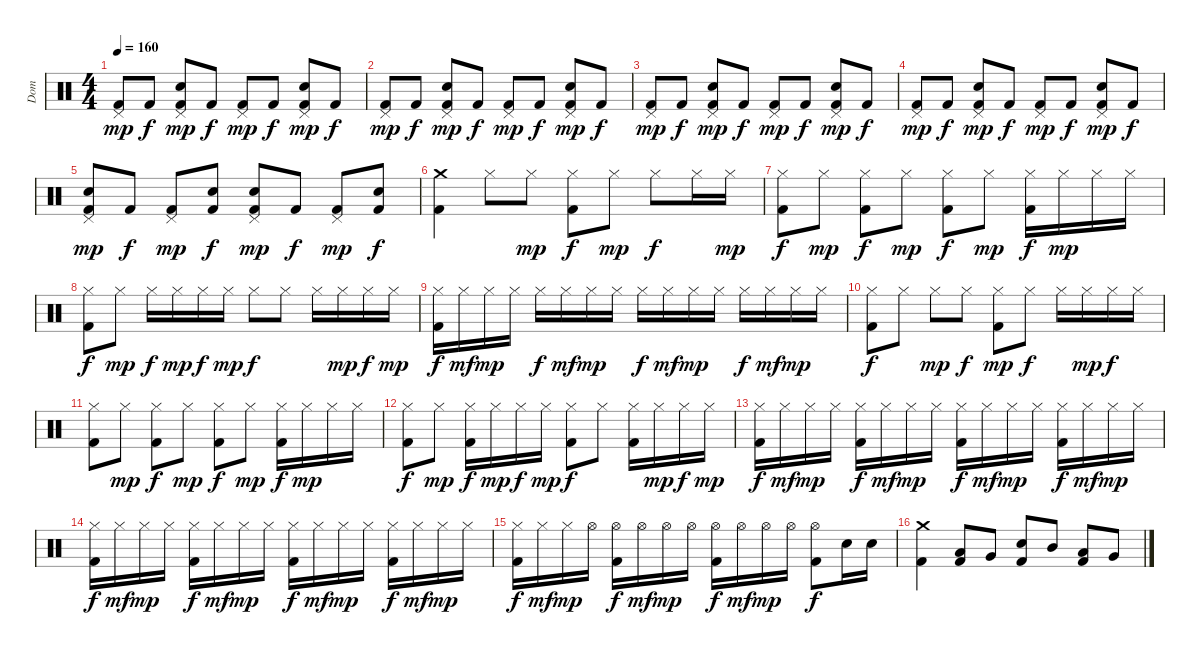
\track ("Dom" "Dom") {instrument percussion}
\staff {score}
\articulation defaults
\ts (4 4)
\tempo 160
\clef neutral
\ks c
("Pedal Hi-Hat (hit)" "Kick (hit) 2").8{dy mp} "Kick (hit) 2".8{dy f} ("Pedal Hi-Hat (hit)" "Snare (hit) 2" "Kick (hit) 2").8{dy mp} "Kick (hit) 2".8{dy f} ("Pedal Hi-Hat (hit)" "Kick (hit) 2").8{dy mp} "Kick (hit) 2".8{dy f} ("Pedal Hi-Hat (hit)" "Snare (hit) 2" "Kick (hit) 2").8{dy mp} "Kick (hit) 2".8{dy f} |
("Pedal Hi-Hat (hit)" "Kick (hit) 2").8{dy mp} "Kick (hit) 2".8{dy f} ("Pedal Hi-Hat (hit)" "Snare (hit) 2" "Kick (hit) 2").8{dy mp} "Kick (hit) 2".8{dy f} ("Pedal Hi-Hat (hit)" "Kick (hit) 2").8{dy mp} "Kick (hit) 2".8{dy f} ("Pedal Hi-Hat (hit)" "Snare (hit) 2" "Kick (hit) 2").8{dy mp} "Kick (hit) 2".8{dy f} |
("Pedal Hi-Hat (hit)" "Kick (hit) 2").8{dy mp} "Kick (hit) 2".8{dy f} ("Pedal Hi-Hat (hit)" "Snare (hit) 2" "Kick (hit) 2").8{dy mp} "Kick (hit) 2".8{dy f} ("Pedal Hi-Hat (hit)" "Kick (hit) 2").8{dy mp} "Kick (hit) 2".8{dy f} ("Pedal Hi-Hat (hit)" "Snare (hit) 2" "Kick (hit) 2").8{dy mp} "Kick (hit) 2".8{dy f} |
("Pedal Hi-Hat (hit)" "Kick (hit) 2").8{dy mp} "Kick (hit) 2".8{dy f} ("Pedal Hi-Hat (hit)" "Snare (hit) 2" "Kick (hit) 2").8{dy mp} "Kick (hit) 2".8{dy f} ("Pedal Hi-Hat (hit)" "Kick (hit) 2").8{dy mp} "Kick (hit) 2".8{dy f} ("Pedal Hi-Hat (hit)" "Snare (hit) 2" "Kick (hit) 2").8{dy mp} "Kick (hit) 2".8{dy f} |
("Pedal Hi-Hat (hit)" "Snare (hit) 2" "Kick (hit) 2").8{dy mp} "Kick (hit) 2".8{dy f} ("Pedal Hi-Hat (hit)" "Kick (hit) 2").8{dy mp} ("Snare (hit) 2" "Kick (hit) 2").8{dy f} ("Pedal Hi-Hat (hit)" "Snare (hit) 2" "Kick (hit) 2").8{dy mp} "Kick (hit) 2".8{dy f} ("Pedal Hi-Hat (hit)" "Kick (hit) 2").8{dy mp} ("Snare (hit) 2" "Kick (hit) 2").8{dy f} |
("Crash medium (hit)" "Kick (hit) 2").4 "Hi-Hat (closed)".8 "Hi-Hat (closed)".8{dy mp} ("Hi-Hat (closed)" "Kick (hit) 2").8{dy f} "Hi-Hat (closed)".8{dy mp} "Hi-Hat (closed)".8{dy f} "Hi-Hat (closed)".16 "Hi-Hat (closed)".16{dy mp} |
("Hi-Hat (closed)" "Kick (hit) 2").8{dy f} "Hi-Hat (closed)".8{dy mp} ("Hi-Hat (closed)" "Kick (hit) 2").8{dy f} "Hi-Hat (closed)".8{dy mp} ("Hi-Hat (closed)" "Kick (hit) 2").8{dy f} "Hi-Hat (closed)".8{dy mp} ("Hi-Hat (closed)" "Kick (hit) 2").16{dy f} "Hi-Hat (closed)".16{dy mp} "Hi-Hat (closed)".16 "Hi-Hat (closed)".16 |
("Hi-Hat (closed)" "Kick (hit) 2").8{dy f} "Hi-Hat (closed)".8{dy mp} "Hi-Hat (closed)".16{dy f} "Hi-Hat (closed)".16{dy mp} "Hi-Hat (closed)".16{dy f} "Hi-Hat (closed)".16{dy mp} "Hi-Hat (closed)".8{dy f} "Hi-Hat (closed)".8 "Hi-Hat (closed)".16 "Hi-Hat (closed)".16{dy mp} "Hi-Hat (closed)".16{dy f} "Hi-Hat (closed)".16{dy mp} |
("Hi-Hat (closed)" "Kick (hit) 2").16{dy f} "Hi-Hat (closed)".16{dy mf} "Hi-Hat (closed)".16{dy mp} "Hi-Hat (closed)".16 "Hi-Hat (closed)".16{dy f} "Hi-Hat (closed)".16{dy mf} "Hi-Hat (closed)".16{dy mp} "Hi-Hat (closed)".16 "Hi-Hat (closed)".16{dy f} "Hi-Hat (closed)".16{dy mf} "Hi-Hat (closed)".16{dy mp} "Hi-Hat (closed)".16 "Hi-Hat (closed)".16{dy f} "Hi-Hat (closed)".16{dy mf} "Hi-Hat (closed)".16{dy mp} "Hi-Hat (closed)".16 |
("Hi-Hat (closed)" "Kick (hit) 2").8{dy f} "Hi-Hat (closed)".8 "Hi-Hat (closed)".8{dy mp} "Hi-Hat (closed)".8{dy f} ("Hi-Hat (closed)" "Kick (hit) 2").8{dy mp} "Hi-Hat (closed)".8{dy f} "Hi-Hat (closed)".16 "Hi-Hat (closed)".16{dy mp} "Hi-Hat (closed)".16{dy f} "Hi-Hat (closed)".16 |
("Hi-Hat (closed)" "Kick (hit) 2").8 "Hi-Hat (closed)".8{dy mp} ("Hi-Hat (closed)" "Kick (hit) 2").8{dy f} "Hi-Hat (closed)".8{dy mp} ("Hi-Hat (closed)" "Kick (hit) 2").8{dy f} "Hi-Hat (closed)".8{dy mp} ("Hi-Hat (closed)" "Kick (hit) 2").16{dy f} "Hi-Hat (closed)".16{dy mp} "Hi-Hat (closed)".16 "Hi-Hat (closed)".16 |
("Hi-Hat (closed)" "Kick (hit) 2").8{dy f} "Hi-Hat (closed)".8{dy mp} ("Hi-Hat (closed)" "Kick (hit) 2").16{dy f} "Hi-Hat (closed)".16{dy mp} "Hi-Hat (closed)".16{dy f} "Hi-Hat (closed)".16{dy mp} ("Hi-Hat (closed)" "Kick (hit) 2").8{dy f} "Hi-Hat (closed)".8 ("Hi-Hat (closed)" "Kick (hit) 2").16 "Hi-Hat (closed)".16{dy mp} "Hi-Hat (closed)".16{dy f} "Hi-Hat (closed)".16{dy mp} |
("Hi-Hat (closed)" "Kick (hit) 2").16{dy f} "Hi-Hat (closed)".16{dy mf} "Hi-Hat (closed)".16{dy mp} "Hi-Hat (closed)".16 ("Hi-Hat (closed)" "Kick (hit) 2").16{dy f} "Hi-Hat (closed)".16{dy mf} "Hi-Hat (closed)".16{dy mp} "Hi-Hat (closed)".16 ("Hi-Hat (closed)" "Kick (hit) 2").16{dy f} "Hi-Hat (closed)".16{dy mf} "Hi-Hat (closed)".16{dy mp} "Hi-Hat (closed)".16 ("Hi-Hat (closed)" "Kick (hit) 2").16{dy f} "Hi-Hat (closed)".16{dy mf} "Hi-Hat (closed)".16{dy mp} "Hi-Hat (closed)".16 |
("Hi-Hat (closed)" "Kick (hit) 2").16{dy f} "Hi-Hat (closed)".16{dy mf} "Hi-Hat (closed)".16{dy mp} "Hi-Hat (closed)".16 ("Hi-Hat (closed)" "Kick (hit) 2").16{dy f} "Hi-Hat (closed)".16{dy mf} "Hi-Hat (closed)".16{dy mp} "Hi-Hat (closed)".16 ("Hi-Hat (closed)" "Kick (hit) 2").16{dy f} "Hi-Hat (closed)".16{dy mf} "Hi-Hat (closed)".16{dy mp} "Hi-Hat (closed)".16 ("Hi-Hat (closed)" "Kick (hit) 2").16{dy f} "Hi-Hat (closed)".16{dy mf} "Hi-Hat (closed)".16{dy mp} "Hi-Hat (closed)".16 |
("Hi-Hat (closed)" "Kick (hit) 2").16{dy f} "Hi-Hat (closed)".16{dy mf} "Hi-Hat (closed)".16{dy mp} "Hi-Hat (open)".16 ("Hi-Hat (open)" "Kick (hit) 2").16{dy f} "Hi-Hat (open)".16{dy mf} "Hi-Hat (open)".16{dy mp} "Hi-Hat (open)".16 ("Hi-Hat (open)" "Kick (hit) 2").16{dy f} "Hi-Hat (open)".16{dy mf} "Hi-Hat (open)".16{dy mp} "Hi-Hat (open)".16 ("Hi-Hat (open)" "Kick (hit) 2").8{dy f} "Snare (hit) 2".16 "Snare (hit) 2".16 |
("Crash medium (hit)" "Kick (hit) 2").4 ("Low Tom (hit)" "Kick (hit) 2").8 "Very Low Tom (hit)".8 ("Snare (hit) 2" "Kick (hit) 2").8 "Mid Tom (hit)".8 ("Low Tom (hit)" "Kick (hit) 2").8 "Very Low Tom (hit)".8
